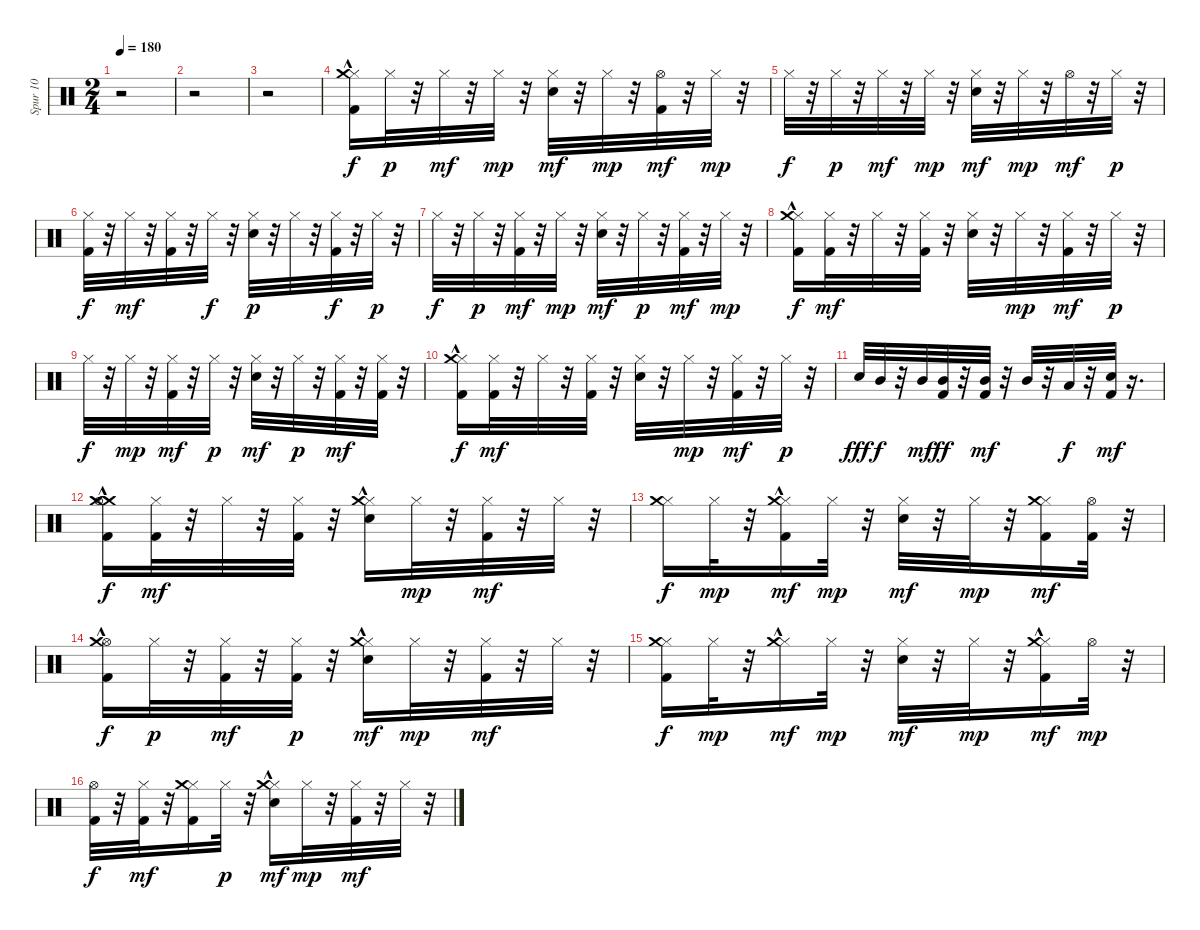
\track ("Spur 10" "Spur 10") {instrument percussion}
\staff {score}
\articulation defaults
\ts (2 4)
\tempo 180
\clef neutral
\ks c
r.2{dy f} |
r.2 |
r.2 |
("Hi-Hat (closed)" "Crash medium (hit)"{hac} "Kick (hit) 2").16 "Hi-Hat (closed)".32{dy p} r.32 "Hi-Hat (closed)".32{dy mf} r.32 "Hi-Hat (closed)".32{dy mp} r.32 ("Electric Snare (hit)" "Hi-Hat (closed)").32{dy mf} r.32 "Hi-Hat (closed)".32{dy mp} r.32 ("Hi-Hat (open)" "Kick (hit) 2").32{dy mf} r.32 "Hi-Hat (closed)".32{dy mp} r.32 |
"Hi-Hat (closed)".32{dy f} r.32 "Hi-Hat (closed)".32{dy p} r.32 "Hi-Hat (closed)".32{dy mf} r.32 "Hi-Hat (closed)".32{dy mp} r.32 ("Electric Snare (hit)" "Hi-Hat (closed)").32{dy mf} r.32 "Hi-Hat (closed)".32{dy mp} r.32 "Hi-Hat (open)".32{dy mf} r.32 "Hi-Hat (closed)".32{dy p} r.32 |
("Hi-Hat (closed)" "Kick (hit) 2").32{dy f} r.32 "Hi-Hat (closed)".32{dy mf} r.32 ("Hi-Hat (closed)" "Kick (hit) 2").32 r.32 "Hi-Hat (closed)".32{dy f} r.32 ("Electric Snare (hit)" "Hi-Hat (closed)").32{dy p} r.32 "Hi-Hat (closed)".32 r.32 ("Hi-Hat (closed)" "Kick (hit) 2").32{dy f} r.32 "Hi-Hat (closed)".32{dy p} r.32 |
"Hi-Hat (closed)".32{dy f} r.32 "Hi-Hat (closed)".32{dy p} r.32 ("Hi-Hat (closed)" "Kick (hit) 2").32{dy mf} r.32 "Hi-Hat (closed)".32{dy mp} r.32 ("Electric Snare (hit)" "Hi-Hat (closed)").32{dy mf} r.32 "Hi-Hat (closed)".32{dy p} r.32 ("Hi-Hat (closed)" "Kick (hit) 2").32{dy mf} r.32 "Hi-Hat (closed)".32{dy mp} r.32 |
("Hi-Hat (closed)" "Crash medium (hit)"{hac} "Kick (hit) 2").16{dy f} ("Hi-Hat (closed)" "Kick (hit) 2").32{dy mf} r.32 "Hi-Hat (closed)".32 r.32 ("Hi-Hat (closed)" "Kick (hit) 2").32 r.32 ("Electric Snare (hit)" "Hi-Hat (closed)").32 r.32 "Hi-Hat (closed)".32{dy mp} r.32 ("Hi-Hat (closed)" "Kick (hit) 2").32{dy mf} r.32 "Hi-Hat (closed)".32{dy p} r.32 |
"Hi-Hat (closed)".32{dy f} r.32 "Hi-Hat (closed)".32{dy mp} r.32 ("Hi-Hat (closed)" "Kick (hit) 2").32{dy mf} r.32 "Hi-Hat (closed)".32{dy p} r.32 ("Electric Snare (hit)" "Hi-Hat (closed)").32{dy mf} r.32 "Hi-Hat (closed)".32{dy p} r.32 ("Hi-Hat (closed)" "Kick (hit) 2").32{dy mf} r.32 ("Hi-Hat (closed)" "Kick (hit) 2").32 r.32 |
("Hi-Hat (closed)" "Crash medium (hit)"{hac} "Kick (hit) 2").16{dy f} ("Hi-Hat (closed)" "Kick (hit) 2").32{dy mf} r.32 "Hi-Hat (closed)".32 r.32 ("Hi-Hat (closed)" "Kick (hit) 2").32 r.32 ("Electric Snare (hit)" "Hi-Hat (closed)").32 r.32 "Hi-Hat (closed)".32{dy mp} r.32 ("Hi-Hat (closed)" "Kick (hit) 2").32{dy mf} r.32 "Hi-Hat (closed)".32{dy p} r.32 |
"Electric Snare (hit)".32{dy fff} "Mid Tom (hit)".32{dy f} r.32 "Mid Tom (hit)".32{dy mf} ("Mid Tom (hit)" "Kick (hit) 2").32{dy ff} r.32 ("Mid Tom (hit)" "Kick (hit) 2").32{dy mf} r.32 "Mid Tom (hit)".32 r.32 "Low Tom (hit)".32{dy f} r.32 ("Electric Snare (hit)" "Kick (hit) 2").32{dy mf} r.16{d} |
("Crash medium (hit)" "Hi-Hat (open)" "Crash medium (hit)"{hac} "Kick (hit) 2").16{dy f} ("Hi-Hat (closed)" "Kick (hit) 2").32{dy mf} r.32 "Hi-Hat (closed)".32 r.32 ("Hi-Hat (closed)" "Kick (hit) 2").32 r.32 ("Electric Snare (hit)" "Hi-Hat (closed)" "Crash medium (hit)"{hac}).16 "Hi-Hat (closed)".32{dy mp} r.32 ("Hi-Hat (closed)" "Kick (hit) 2").32{dy mf} r.32 "Hi-Hat (closed)".32 r.32 |
("Hi-Hat (closed)" "Crash medium (hit)").16{dy f} "Hi-Hat (closed)".32{dy mp} r.32 ("Hi-Hat (closed)" "Crash medium (hit)"{hac} "Kick (hit) 2").16{dy mf} "Hi-Hat (closed)".32{dy mp} r.32 ("Electric Snare (hit)" "Hi-Hat (closed)").32{dy mf} r.32 "Hi-Hat (closed)".32{dy mp} r.32 ("Hi-Hat (closed)" "Crash medium (hit)" "Kick (hit) 2").16{dy mf} ("Hi-Hat (open)" "Kick (hit) 2").32 r.32 |
("Hi-Hat (open)" "Crash medium (hit)"{hac} "Kick (hit) 2").16{dy f} "Hi-Hat (closed)".32{dy p} r.32 ("Hi-Hat (closed)" "Kick (hit) 2").32{dy mf} r.32 ("Hi-Hat (closed)" "Kick (hit) 2").32{dy p} r.32 ("Electric Snare (hit)" "Hi-Hat (closed)" "Crash medium (hit)"{hac}).16{dy mf} "Hi-Hat (closed)".32{dy mp} r.32 ("Hi-Hat (closed)" "Kick (hit) 2").32{dy mf} r.32 "Hi-Hat (closed)".32 r.32 |
("Hi-Hat (closed)" "Crash medium (hit)" "Kick (hit) 2").16{dy f} "Hi-Hat (closed)".32{dy mp} r.32 ("Hi-Hat (closed)" "Crash medium (hit)"{hac}).16{dy mf} "Hi-Hat (closed)".32{dy mp} r.32 ("Electric Snare (hit)" "Hi-Hat (closed)").32{dy mf} r.32 "Hi-Hat (closed)".32{dy mp} r.32 ("Hi-Hat (closed)" "Crash medium (hit)"{hac} "Kick (hit) 2").16{dy mf} "Hi-Hat (open)".32{dy mp} r.32 |
("Hi-Hat (open)" "Kick (hit) 2").32{dy f} r.32 ("Hi-Hat (closed)" "Kick (hit) 2").32{dy mf} r.32 ("Hi-Hat (closed)" "Crash medium (hit)" "Kick (hit) 2").16 "Hi-Hat (closed)".32{dy p} r.32 ("Electric Snare (hit)" "Hi-Hat (closed)" "Crash medium (hit)"{hac}).16{dy mf} "Hi-Hat (closed)".32{dy mp} r.32 ("Hi-Hat (closed)" "Kick (hit) 2").32{dy mf} r.32 "Hi-Hat (closed)".32 r.32
